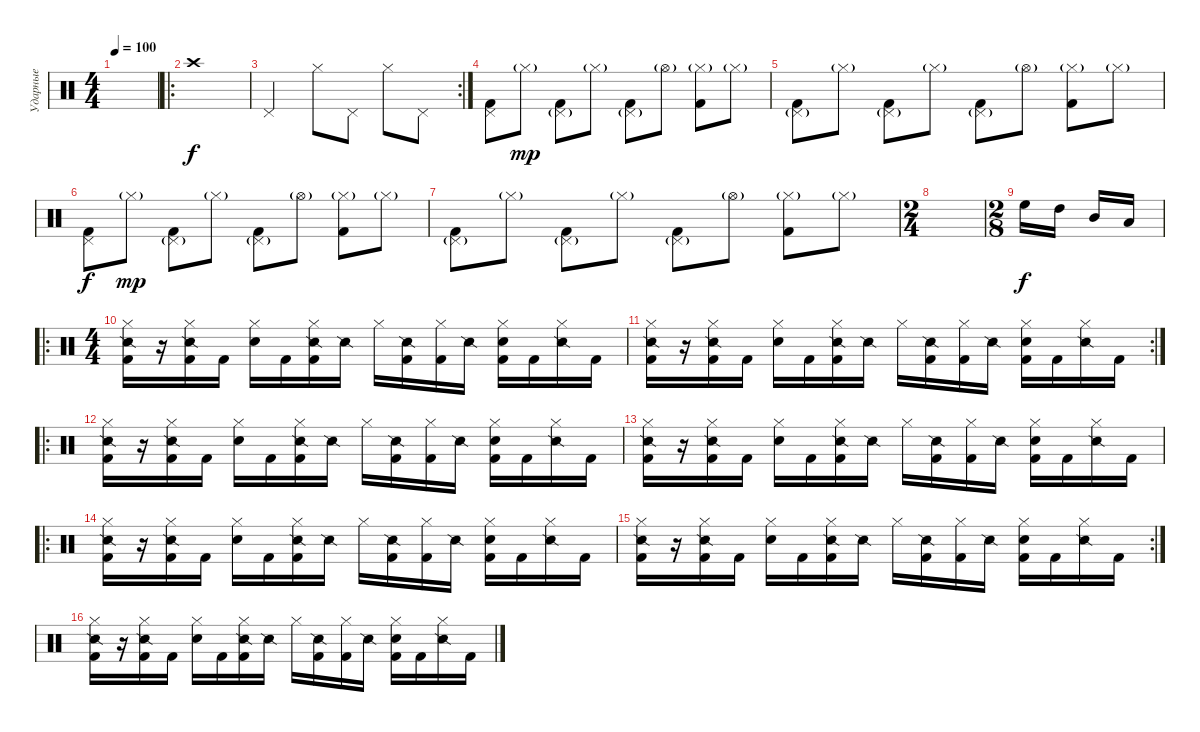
\track ("Ударные" "Ударные") {instrument percussion}
\staff {score}
\articulation defaults
\ts (4 4)
\tempo 100
\clef neutral
\ks c
|
\ro "Crash high (hit)".1
|
\rc 2 "Pedal Hi-Hat (hit)".2 "Hi-Hat (closed)".8 "Pedal Hi-Hat (hit)".8 "Hi-Hat (closed)".8 "Pedal Hi-Hat (hit)".8
|
("Kick (hit) 2" "Pedal Hi-Hat (hit)").8 "Hi-Hat (closed)"{g}.8{dy mp} ("Pedal Hi-Hat (hit)"{g} "Kick (hit) 2").8 "Hi-Hat (closed)"{g}.8 ("Pedal Hi-Hat (hit)"{g} "Kick (hit) 2").8 "Hi-Hat (open)"{g}.8 ("Hi-Hat (closed)"{g} "Kick (hit) 2").8 "Hi-Hat (closed)"{g}.8 |
("Pedal Hi-Hat (hit)"{g} "Kick (hit) 2").8 "Hi-Hat (closed)"{g}.8 ("Pedal Hi-Hat (hit)"{g} "Kick (hit) 2").8 "Hi-Hat (closed)"{g}.8 ("Pedal Hi-Hat (hit)"{g} "Kick (hit) 2").8 "Hi-Hat (open)"{g}.8 ("Hi-Hat (closed)"{g} "Kick (hit) 2").8 "Hi-Hat (closed)"{g}.8 |
("Kick (hit) 2" "Pedal Hi-Hat (hit)").8{dy f} "Hi-Hat (closed)"{g}.8{dy mp} ("Pedal Hi-Hat (hit)"{g} "Kick (hit) 2").8 "Hi-Hat (closed)"{g}.8 ("Pedal Hi-Hat (hit)"{g} "Kick (hit) 2").8 "Hi-Hat (open)"{g}.8 ("Hi-Hat (closed)"{g} "Kick (hit) 2").8 "Hi-Hat (closed)"{g}.8 |
("Pedal Hi-Hat (hit)"{g} "Kick (hit) 2").8 "Hi-Hat (closed)"{g}.8 ("Pedal Hi-Hat (hit)"{g} "Kick (hit) 2").8 "Hi-Hat (closed)"{g}.8 ("Pedal Hi-Hat (hit)"{g} "Kick (hit) 2").8 "Hi-Hat (open)"{g}.8 ("Hi-Hat (closed)"{g} "Kick (hit) 2").8 "Hi-Hat (closed)"{g}.8 |
\ts (2 4)
|
\ts (2 8)
"High Floor Tom (hit)".16{dy f} "High Tom (hit)".16 "Mid Tom (hit)".16 "Low Tom (hit)".16 |
\ro
\ts (4 4)
("Kick (hit) 2" "Hi-Hat (closed)" "Snare (side stick) 2").16 r.16 ("Kick (hit) 2" "Hi-Hat (closed)" "Snare (side stick) 2").16 "Kick (hit) 2".16 ("Snare (hit) 2" "Hi-Hat (closed)").16 "Kick (hit) 2".16 ("Kick (hit) 2" "Hi-Hat (closed)" "Snare (side stick) 2").16 "Snare (side stick) 2".16 "Hi-Hat (closed)".16 ("Kick (hit) 2" "Snare (side stick) 2").16 ("Kick (hit) 2" "Hi-Hat (closed)").16 "Snare (side stick) 2".16 ("Kick (hit) 2" "Snare (hit) 2" "Hi-Hat (closed)").16 "Kick (hit) 2".16 ("Hi-Hat (closed)" "Snare (side stick) 2").16 "Kick (hit) 2".16 |
\rc 2
("Kick (hit) 2" "Hi-Hat (closed)" "Snare (side stick) 2").16 r.16 ("Kick (hit) 2" "Hi-Hat (closed)" "Snare (side stick) 2").16 "Kick (hit) 2".16 ("Snare (hit) 2" "Hi-Hat (closed)").16 "Kick (hit) 2".16 ("Kick (hit) 2" "Hi-Hat (closed)" "Snare (side stick) 2").16 "Snare (side stick) 2".16 "Hi-Hat (closed)".16 ("Kick (hit) 2" "Snare (side stick) 2").16 ("Kick (hit) 2" "Hi-Hat (closed)").16 "Snare (side stick) 2".16 ("Kick (hit) 2" "Snare (hit) 2" "Hi-Hat (closed)").16 "Kick (hit) 2".16 ("Hi-Hat (closed)" "Snare (side stick) 2").16 "Kick (hit) 2".16 |
\ro
("Kick (hit) 2" "Hi-Hat (closed)" "Snare (side stick) 2").16 r.16 ("Kick (hit) 2" "Hi-Hat (closed)" "Snare (side stick) 2").16 "Kick (hit) 2".16 ("Snare (hit) 2" "Hi-Hat (closed)").16 "Kick (hit) 2".16 ("Kick (hit) 2" "Hi-Hat (closed)" "Snare (side stick) 2").16 "Snare (side stick) 2".16 "Hi-Hat (closed)".16 ("Kick (hit) 2" "Snare (side stick) 2").16 ("Kick (hit) 2" "Hi-Hat (closed)").16 "Snare (side stick) 2".16 ("Kick (hit) 2" "Snare (hit) 2" "Hi-Hat (closed)").16 "Kick (hit) 2".16 ("Hi-Hat (closed)" "Snare (side stick) 2").16 "Kick (hit) 2".16 |
("Kick (hit) 2" "Hi-Hat (closed)" "Snare (side stick) 2").16 r.16 ("Kick (hit) 2" "Hi-Hat (closed)" "Snare (side stick) 2").16 "Kick (hit) 2".16 ("Snare (hit) 2" "Hi-Hat (closed)").16 "Kick (hit) 2".16 ("Kick (hit) 2" "Hi-Hat (closed)" "Snare (side stick) 2").16 "Snare (side stick) 2".16 "Hi-Hat (closed)".16 ("Kick (hit) 2" "Snare (side stick) 2").16 ("Kick (hit) 2" "Hi-Hat (closed)").16 "Snare (side stick) 2".16 ("Kick (hit) 2" "Snare (hit) 2" "Hi-Hat (closed)").16 "Kick (hit) 2".16 ("Hi-Hat (closed)" "Snare (side stick) 2").16 "Kick (hit) 2".16 |
\ro
("Kick (hit) 2" "Hi-Hat (closed)" "Snare (side stick) 2").16 r.16 ("Kick (hit) 2" "Hi-Hat (closed)" "Snare (side stick) 2").16 "Kick (hit) 2".16 ("Snare (hit) 2" "Hi-Hat (closed)").16 "Kick (hit) 2".16 ("Kick (hit) 2" "Hi-Hat (closed)" "Snare (side stick) 2").16 "Snare (side stick) 2".16 "Hi-Hat (closed)".16 ("Kick (hit) 2" "Snare (side stick) 2").16 ("Kick (hit) 2" "Hi-Hat (closed)").16 "Snare (side stick) 2".16 ("Kick (hit) 2" "Snare (hit) 2" "Hi-Hat (closed)").16 "Kick (hit) 2".16 ("Hi-Hat (closed)" "Snare (side stick) 2").16 "Kick (hit) 2".16 |
\rc 2
("Kick (hit) 2" "Hi-Hat (closed)" "Snare (side stick) 2").16 r.16 ("Kick (hit) 2" "Hi-Hat (closed)" "Snare (side stick) 2").16 "Kick (hit) 2".16 ("Snare (hit) 2" "Hi-Hat (closed)").16 "Kick (hit) 2".16 ("Kick (hit) 2" "Hi-Hat (closed)" "Snare (side stick) 2").16 "Snare (side stick) 2".16 "Hi-Hat (closed)".16 ("Kick (hit) 2" "Snare (side stick) 2").16 ("Kick (hit) 2" "Hi-Hat (closed)").16 "Snare (side stick) 2".16 ("Kick (hit) 2" "Snare (hit) 2" "Hi-Hat (closed)").16 "Kick (hit) 2".16 ("Hi-Hat (closed)" "Snare (side stick) 2").16 "Kick (hit) 2".16 |
("Kick (hit) 2" "Hi-Hat (closed)" "Snare (side stick) 2").16 r.16 ("Kick (hit) 2" "Hi-Hat (closed)" "Snare (side stick) 2").16 "Kick (hit) 2".16 ("Snare (hit) 2" "Hi-Hat (closed)").16 "Kick (hit) 2".16 ("Kick (hit) 2" "Hi-Hat (closed)" "Snare (side stick) 2").16 "Snare (side stick) 2".16 "Hi-Hat (closed)".16 ("Kick (hit) 2" "Snare (side stick) 2").16 ("Kick (hit) 2" "Hi-Hat (closed)").16 "Snare (side stick) 2".16 ("Kick (hit) 2" "Snare (hit) 2" "Hi-Hat (closed)").16 "Kick (hit) 2".16 ("Hi-Hat (closed)" "Snare (side stick) 2").16 "Kick (hit) 2".16
